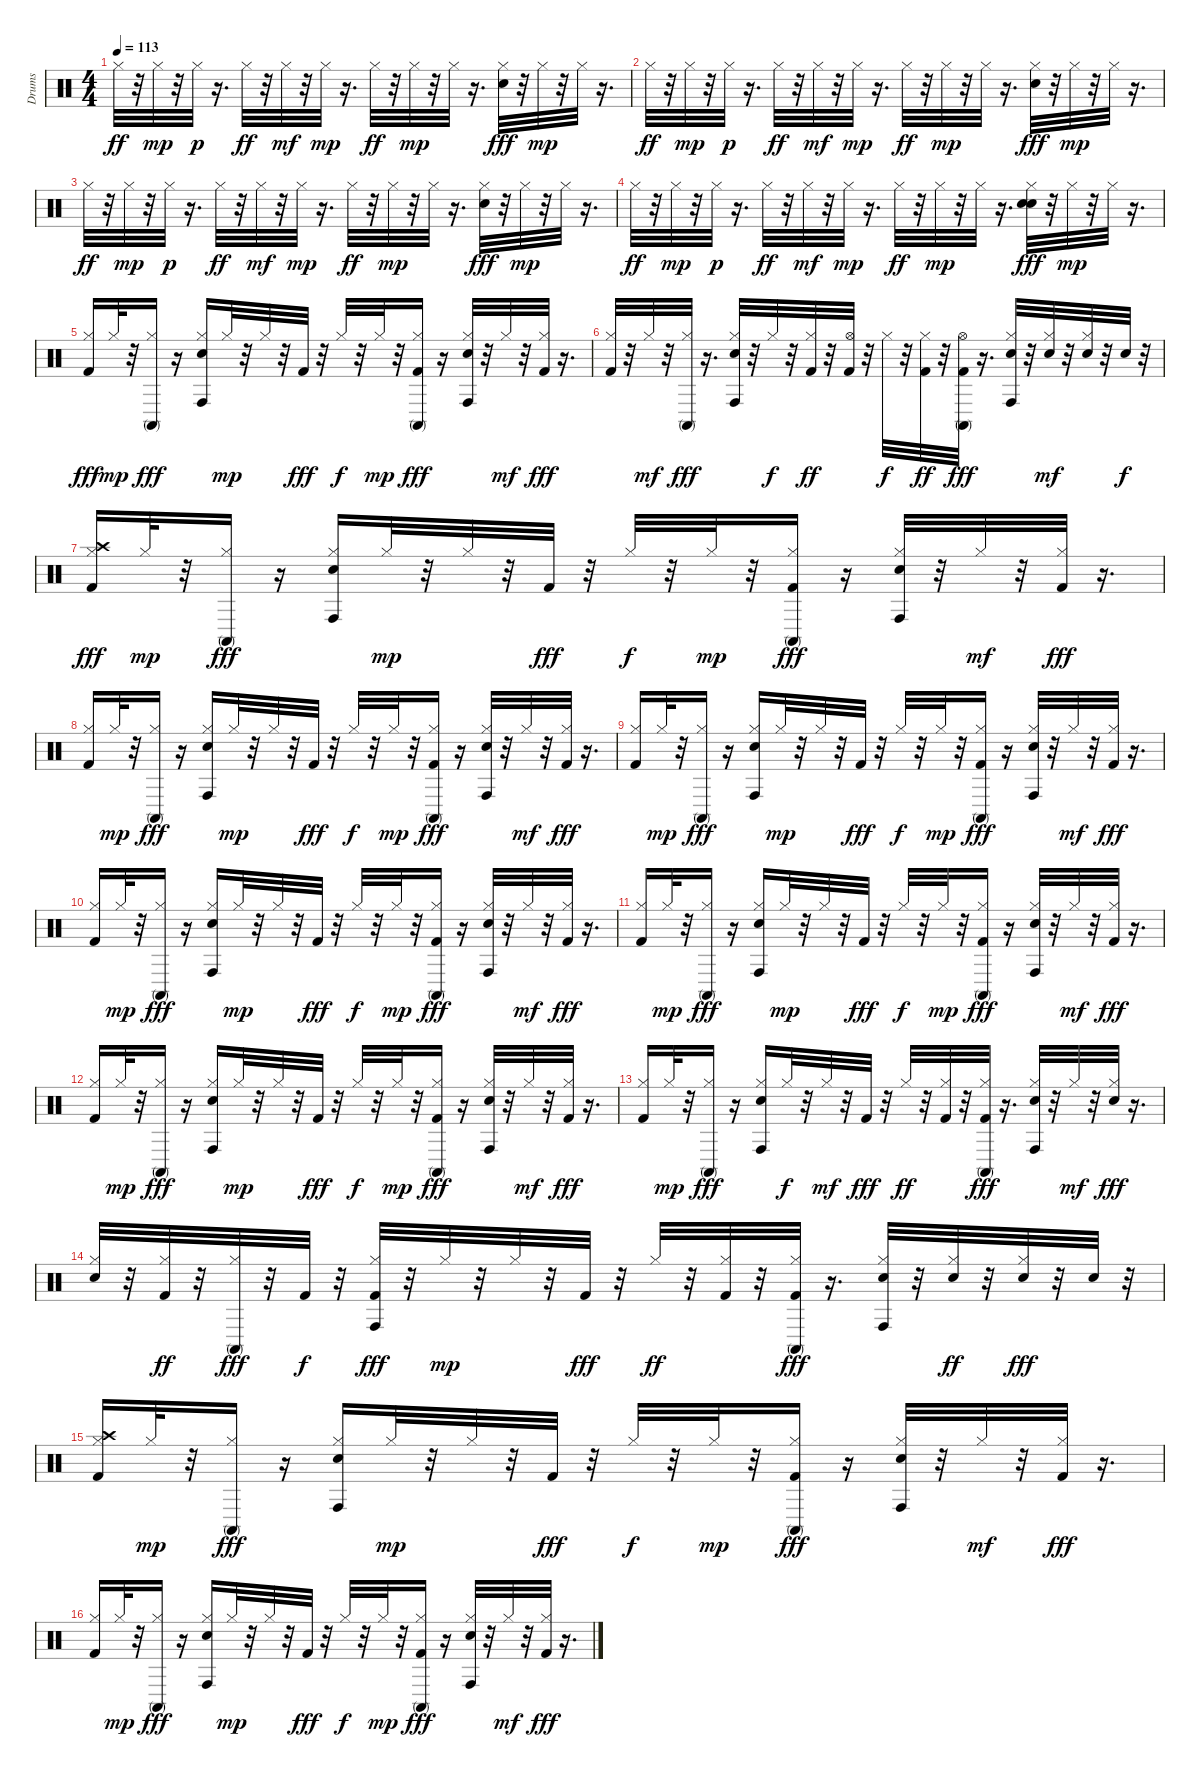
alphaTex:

\track ("Drums   " "Drums   ") {instrument percussion}
\staff {score}
\articulation defaults
\ts (4 4)
\tempo 113
\clef neutral
\ks c "Hi-Hat (closed)".32{dy ff}
r.32 "Hi-Hat (closed)".32{dy mp} r.32 "Hi-Hat (closed)".32{dy p} r.16{d} "Hi-Hat (closed)".32{dy ff} r.32 "Hi-Hat (closed)".32{dy mf} r.32 "Hi-Hat (closed)".32{dy mp} r.16{d} "Hi-Hat (closed)".32{dy ff} r.32 "Hi-Hat (closed)".32{dy mp} r.32 "Hi-Hat (closed)".32 r.16{d} ("Hi-Hat (closed)" "Hand Clap (hit)").32{dy fff} r.32 "Hi-Hat (closed)".32{dy mp} r.32 "Hi-Hat (closed)".32 r.16{d} |
"Hi-Hat (closed)".32{dy ff} r.32 "Hi-Hat (closed)".32{dy mp} r.32 "Hi-Hat (closed)".32{dy p} r.16{d} "Hi-Hat (closed)".32{dy ff} r.32 "Hi-Hat (closed)".32{dy mf} r.32 "Hi-Hat (closed)".32{dy mp} r.16{d} "Hi-Hat (closed)".32{dy ff} r.32 "Hi-Hat (closed)".32{dy mp} r.32 "Hi-Hat (closed)".32 r.16{d} ("Hi-Hat (closed)" "Hand Clap (hit)").32{dy fff} r.32 "Hi-Hat (closed)".32{dy mp} r.32 "Hi-Hat (closed)".32 r.16{d} |
"Hi-Hat (closed)".32{dy ff} r.32 "Hi-Hat (closed)".32{dy mp} r.32 "Hi-Hat (closed)".32{dy p} r.16{d} "Hi-Hat (closed)".32{dy ff} r.32 "Hi-Hat (closed)".32{dy mf} r.32 "Hi-Hat (closed)".32{dy mp} r.16{d} "Hi-Hat (closed)".32{dy ff} r.32 "Hi-Hat (closed)".32{dy mp} r.32 "Hi-Hat (closed)".32 r.16{d} ("Hi-Hat (closed)" "Hand Clap (hit)").32{dy fff} r.32 "Hi-Hat (closed)".32{dy mp} r.32 "Hi-Hat (closed)".32 r.16{d} |
"Hi-Hat (closed)".32{dy ff} r.32 "Hi-Hat (closed)".32{dy mp} r.32 "Hi-Hat (closed)".32{dy p} r.16{d} "Hi-Hat (closed)".32{dy ff} r.32 "Hi-Hat (closed)".32{dy mf} r.32 "Hi-Hat (closed)".32{dy mp} r.16{d} "Hi-Hat (closed)".32{dy ff} r.32 "Hi-Hat (closed)".32{dy mp} r.32 "Hi-Hat (closed)".32 r.16{d} ("Hi-Hat (closed)" "Hand Clap (hit)" "Electric Snare (hit)").32{dy fff} r.32 "Hi-Hat (closed)".32{dy mp} r.32 "Hi-Hat (closed)".32 r.16{d} |
("Hi-Hat (closed)" "Kick (hit) 2").16{dy fff} "Hi-Hat (closed)".32{dy mp} r.32 ("Hi-Hat (closed)" "Conga high (mute)").16{dy fff} r.16 ("Hi-Hat (closed)" "Electric Snare (hit)" "Conga high (hit)").16 "Hi-Hat (closed)".32{dy mp} r.32 "Hi-Hat (closed)".32 r.32 "Kick (hit) 2".32{dy fff} r.32 "Hi-Hat (closed)".32{dy f} r.32 "Hi-Hat (closed)".32{dy mp} r.32 ("Hi-Hat (closed)" "Kick (hit) 2" "Conga high (mute)").16{dy fff} r.16 ("Hi-Hat (closed)" "Electric Snare (hit)" "Conga high (hit)").32 r.32 "Hi-Hat (closed)".32{dy mf} r.32 ("Hi-Hat (closed)" "Kick (hit) 2").32{dy fff} r.16{d} |
("Hi-Hat (closed)" "Kick (hit) 2").32 r.32 "Hi-Hat (closed)".32{dy mf} r.32 ("Hi-Hat (closed)" "Conga high (mute)").32{dy fff} r.16{d} ("Hi-Hat (closed)" "Electric Snare (hit)" "Conga high (hit)").32 r.32 "Hi-Hat (closed)".32{dy f} r.32 ("Hi-Hat (closed)" "Kick (hit) 2").32{dy ff} r.32 ("Kick (hit) 2" "Hi-Hat (open)").32 r.32 "Hi-Hat (closed)".32{dy f} r.32 ("Hi-Hat (closed)" "Kick (hit) 2").32{dy ff} r.32 ("Kick (hit) 2" "Hi-Hat (open)" "Conga high (mute)").32{dy fff} r.16{d} ("Hi-Hat (closed)" "Electric Snare (hit)" "Conga high (hit)").32 r.32 ("Hi-Hat (closed)" "Electric Snare (hit)").32{dy mf} r.32 ("Hi-Hat (closed)" "Electric Snare (hit)").32 r.32 "Electric Snare (hit)".32{dy f} r.32 |
("Hi-Hat (closed)" "Kick (hit) 2" "Crash high (hit)").16{dy fff} "Hi-Hat (closed)".32{dy mp} r.32 ("Hi-Hat (closed)" "Conga high (mute)").16{dy fff} r.16 ("Hi-Hat (closed)" "Electric Snare (hit)" "Conga high (hit)").16 "Hi-Hat (closed)".32{dy mp} r.32 "Hi-Hat (closed)".32 r.32 "Kick (hit) 2".32{dy fff} r.32 "Hi-Hat (closed)".32{dy f} r.32 "Hi-Hat (closed)".32{dy mp} r.32 ("Hi-Hat (closed)" "Kick (hit) 2" "Conga high (mute)").16{dy fff} r.16 ("Hi-Hat (closed)" "Electric Snare (hit)" "Conga high (hit)").32 r.32 "Hi-Hat (closed)".32{dy mf} r.32 ("Hi-Hat (closed)" "Kick (hit) 2").32{dy fff} r.16{d} |
("Hi-Hat (closed)" "Kick (hit) 2").16 "Hi-Hat (closed)".32{dy mp} r.32 ("Hi-Hat (closed)" "Conga high (mute)").16{dy fff} r.16 ("Hi-Hat (closed)" "Electric Snare (hit)" "Conga high (hit)").16 "Hi-Hat (closed)".32{dy mp} r.32 "Hi-Hat (closed)".32 r.32 "Kick (hit) 2".32{dy fff} r.32 "Hi-Hat (closed)".32{dy f} r.32 "Hi-Hat (closed)".32{dy mp} r.32 ("Hi-Hat (closed)" "Kick (hit) 2" "Conga high (mute)").16{dy fff} r.16 ("Hi-Hat (closed)" "Electric Snare (hit)" "Conga high (hit)").32 r.32 "Hi-Hat (closed)".32{dy mf} r.32 ("Hi-Hat (closed)" "Kick (hit) 2").32{dy fff} r.16{d} |
("Hi-Hat (closed)" "Kick (hit) 2").16 "Hi-Hat (closed)".32{dy mp} r.32 ("Hi-Hat (closed)" "Conga high (mute)").16{dy fff} r.16 ("Hi-Hat (closed)" "Electric Snare (hit)" "Conga high (hit)").16 "Hi-Hat (closed)".32{dy mp} r.32 "Hi-Hat (closed)".32 r.32 "Kick (hit) 2".32{dy fff} r.32 "Hi-Hat (closed)".32{dy f} r.32 "Hi-Hat (closed)".32{dy mp} r.32 ("Hi-Hat (closed)" "Kick (hit) 2" "Conga high (mute)").16{dy fff} r.16 ("Hi-Hat (closed)" "Electric Snare (hit)" "Conga high (hit)").32 r.32 "Hi-Hat (closed)".32{dy mf} r.32 ("Hi-Hat (closed)" "Kick (hit) 2").32{dy fff} r.16{d} |
("Hi-Hat (closed)" "Kick (hit) 2").16 "Hi-Hat (closed)".32{dy mp} r.32 ("Hi-Hat (closed)" "Conga high (mute)").16{dy fff} r.16 ("Hi-Hat (closed)" "Electric Snare (hit)" "Conga high (hit)").16 "Hi-Hat (closed)".32{dy mp} r.32 "Hi-Hat (closed)".32 r.32 "Kick (hit) 2".32{dy fff} r.32 "Hi-Hat (closed)".32{dy f} r.32 "Hi-Hat (closed)".32{dy mp} r.32 ("Hi-Hat (closed)" "Kick (hit) 2" "Conga high (mute)").16{dy fff} r.16 ("Hi-Hat (closed)" "Electric Snare (hit)" "Conga high (hit)").32 r.32 "Hi-Hat (closed)".32{dy mf} r.32 ("Hi-Hat (closed)" "Kick (hit) 2").32{dy fff} r.16{d} |
("Hi-Hat (closed)" "Kick (hit) 2").16 "Hi-Hat (closed)".32{dy mp} r.32 ("Hi-Hat (closed)" "Conga high (mute)").16{dy fff} r.16 ("Hi-Hat (closed)" "Electric Snare (hit)" "Conga high (hit)").16 "Hi-Hat (closed)".32{dy mp} r.32 "Hi-Hat (closed)".32 r.32 "Kick (hit) 2".32{dy fff} r.32 "Hi-Hat (closed)".32{dy f} r.32 "Hi-Hat (closed)".32{dy mp} r.32 ("Hi-Hat (closed)" "Kick (hit) 2" "Conga high (mute)").16{dy fff} r.16 ("Hi-Hat (closed)" "Electric Snare (hit)" "Conga high (hit)").32 r.32 "Hi-Hat (closed)".32{dy mf} r.32 ("Hi-Hat (closed)" "Kick (hit) 2").32{dy fff} r.16{d} |
("Hi-Hat (closed)" "Kick (hit) 2").16 "Hi-Hat (closed)".32{dy mp} r.32 ("Hi-Hat (closed)" "Conga high (mute)").16{dy fff} r.16 ("Hi-Hat (closed)" "Electric Snare (hit)" "Conga high (hit)").16 "Hi-Hat (closed)".32{dy mp} r.32 "Hi-Hat (closed)".32 r.32 "Kick (hit) 2".32{dy fff} r.32 "Hi-Hat (closed)".32{dy f} r.32 "Hi-Hat (closed)".32{dy mp} r.32 ("Hi-Hat (closed)" "Kick (hit) 2" "Conga high (mute)").16{dy fff} r.16 ("Hi-Hat (closed)" "Electric Snare (hit)" "Conga high (hit)").32 r.32 "Hi-Hat (closed)".32{dy mf} r.32 ("Hi-Hat (closed)" "Kick (hit) 2").32{dy fff} r.16{d} |
("Hi-Hat (closed)" "Kick (hit) 2").16 "Hi-Hat (closed)".32{dy mp} r.32 ("Hi-Hat (closed)" "Conga high (mute)").16{dy fff} r.16 ("Hi-Hat (closed)" "Electric Snare (hit)" "Conga high (hit)").16 "Hi-Hat (closed)".32{dy f} r.32 "Hi-Hat (closed)".32{dy mf} r.32 "Kick (hit) 2".32{dy fff} r.32 "Hi-Hat (closed)".32{dy ff} r.32 ("Hi-Hat (closed)" "Kick (hit) 2").32 r.32 ("Hi-Hat (closed)" "Kick (hit) 2" "Conga high (mute)").32{dy fff} r.16{d} ("Hi-Hat (closed)" "Electric Snare (hit)" "Conga high (hit)").32 r.32 "Hi-Hat (closed)".32{dy mf} r.32 ("Hi-Hat (closed)" "Electric Snare (hit)").32{dy fff} r.16{d} |
("Hi-Hat (closed)" "Electric Snare (hit)").32 r.32 ("Hi-Hat (closed)" "Kick (hit) 2").32{dy ff} r.32 ("Hi-Hat (closed)" "Conga high (mute)").32{dy fff} r.32 "Kick (hit) 2".32{dy f} r.32 ("Hi-Hat (closed)" "Kick (hit) 2" "Conga high (hit)").32{dy fff} r.32 "Hi-Hat (closed)".32{dy mp} r.32 "Hi-Hat (closed)".32 r.32 "Kick (hit) 2".32{dy fff} r.32 "Hi-Hat (closed)".32{dy ff} r.32 ("Hi-Hat (closed)" "Kick (hit) 2").32 r.32 ("Hi-Hat (closed)" "Kick (hit) 2" "Conga high (mute)").32{dy fff} r.16{d} ("Hi-Hat (closed)" "Electric Snare (hit)" "Conga high (hit)").32 r.32 ("Hi-Hat (closed)" "Electric Snare (hit)").32{dy ff} r.32 ("Hi-Hat (closed)" "Electric Snare (hit)").32{dy fff} r.32 "Electric Snare (hit)".32 r.32 |
("Hi-Hat (closed)" "Kick (hit) 2" "Crash high (hit)").16 "Hi-Hat (closed)".32{dy mp} r.32 ("Hi-Hat (closed)" "Conga high (mute)").16{dy fff} r.16 ("Hi-Hat (closed)" "Electric Snare (hit)" "Conga high (hit)").16 "Hi-Hat (closed)".32{dy mp} r.32 "Hi-Hat (closed)".32 r.32 "Kick (hit) 2".32{dy fff} r.32 "Hi-Hat (closed)".32{dy f} r.32 "Hi-Hat (closed)".32{dy mp} r.32 ("Hi-Hat (closed)" "Kick (hit) 2" "Conga high (mute)").16{dy fff} r.16 ("Hi-Hat (closed)" "Electric Snare (hit)" "Conga high (hit)").32 r.32 "Hi-Hat (closed)".32{dy mf} r.32 ("Hi-Hat (closed)" "Kick (hit) 2").32{dy fff} r.16{d} |
("Hi-Hat (closed)" "Kick (hit) 2").16 "Hi-Hat (closed)".32{dy mp} r.32 ("Hi-Hat (closed)" "Conga high (mute)").16{dy fff} r.16 ("Hi-Hat (closed)" "Electric Snare (hit)" "Conga high (hit)").16 "Hi-Hat (closed)".32{dy mp} r.32 "Hi-Hat (closed)".32 r.32 "Kick (hit) 2".32{dy fff} r.32 "Hi-Hat (closed)".32{dy f} r.32 "Hi-Hat (closed)".32{dy mp} r.32 ("Hi-Hat (closed)" "Kick (hit) 2" "Conga high (mute)").16{dy fff} r.16 ("Hi-Hat (closed)" "Electric Snare (hit)" "Conga high (hit)").32 r.32 "Hi-Hat (closed)".32{dy mf} r.32 ("Hi-Hat (closed)" "Kick (hit) 2").32{dy fff} r.16{d}
